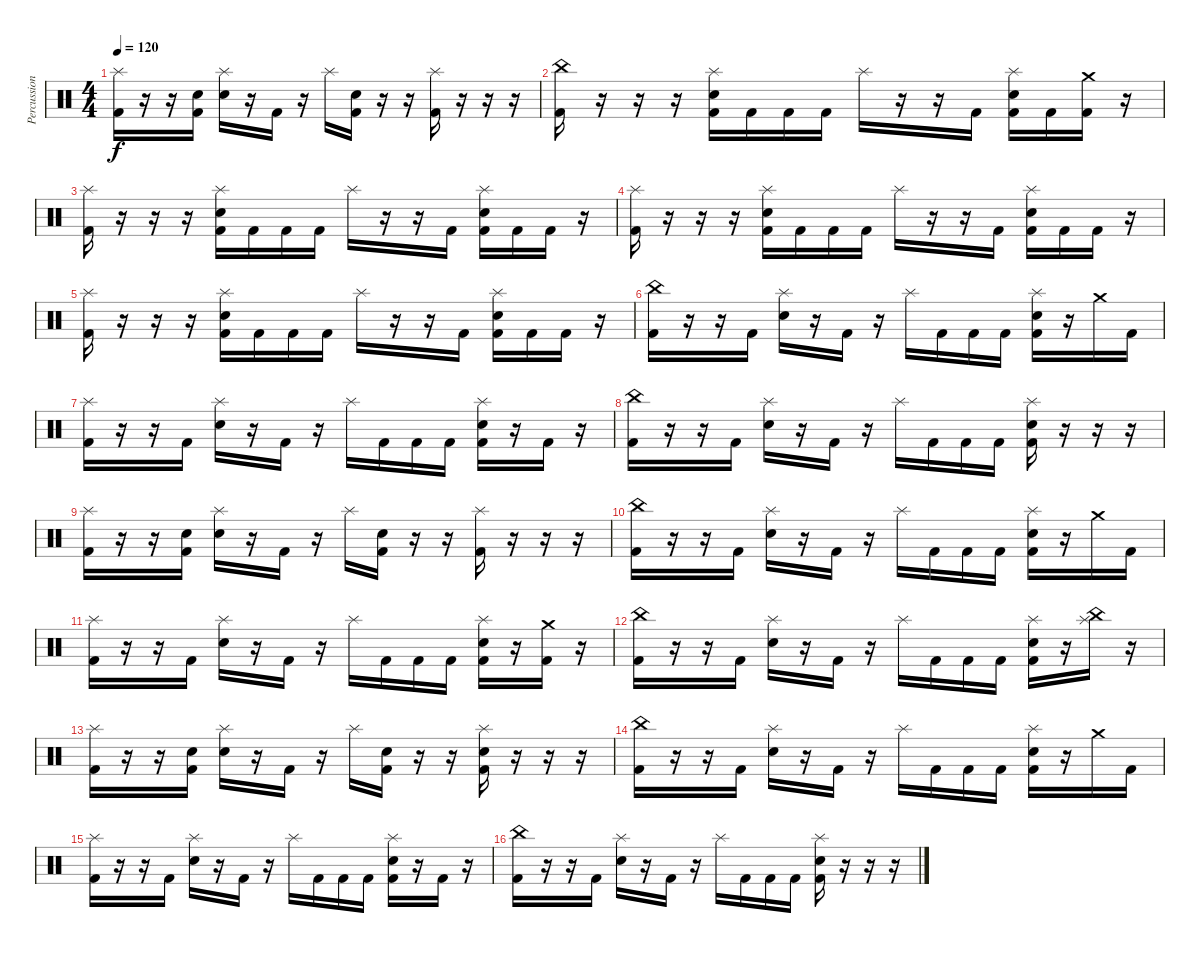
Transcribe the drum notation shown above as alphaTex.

\track ("Percussion" "Percussion") {instrument percussion}
\staff {score}
\articulation defaults
\ts (4 4)
\tempo 120
\clef neutral
\ks c
("Splash (hit)" "Kick (hit) 2").16{dy f} r.16 r.16 ("Electric Snare (hit)" "Kick (hit) 2").16 ("Splash (hit)" "Electric Snare (hit)").16 r.16 "Kick (hit) 2".16 r.16 "Splash (hit)".16 ("Electric Snare (hit)" "Kick (hit) 2").16 r.16 r.16 ("Splash (hit)" "Kick (hit) 2").16 r.16 r.16 r.16 |
("China (hit)" "Kick (hit) 2").16 r.16 r.16 r.16 ("Splash (hit)" "Electric Snare (hit)" "Kick (hit) 2").16 "Kick (hit) 2".16 "Kick (hit) 2".16 "Kick (hit) 2".16 "Splash (hit)".16 r.16 r.16 "Kick (hit) 2".16 ("Splash (hit)" "Electric Snare (hit)" "Kick (hit) 2").16 "Kick (hit) 2".16 ("Crash medium (hit)" "Kick (hit) 2").16 r.16 |
("Splash (hit)" "Kick (hit) 2").16 r.16 r.16 r.16 ("Splash (hit)" "Electric Snare (hit)" "Kick (hit) 2").16 "Kick (hit) 2".16 "Kick (hit) 2".16 "Kick (hit) 2".16 "Splash (hit)".16 r.16 r.16 "Kick (hit) 2".16 ("Splash (hit)" "Electric Snare (hit)" "Kick (hit) 2").16 "Kick (hit) 2".16 "Kick (hit) 2".16 r.16 |
("Splash (hit)" "Kick (hit) 2").16 r.16 r.16 r.16 ("Splash (hit)" "Electric Snare (hit)" "Kick (hit) 2").16 "Kick (hit) 2".16 "Kick (hit) 2".16 "Kick (hit) 2".16 "Splash (hit)".16 r.16 r.16 "Kick (hit) 2".16 ("Splash (hit)" "Electric Snare (hit)" "Kick (hit) 2").16 "Kick (hit) 2".16 "Kick (hit) 2".16 r.16 |
("Splash (hit)" "Kick (hit) 2").16 r.16 r.16 r.16 ("Splash (hit)" "Electric Snare (hit)" "Kick (hit) 2").16 "Kick (hit) 2".16 "Kick (hit) 2".16 "Kick (hit) 2".16 "Splash (hit)".16 r.16 r.16 "Kick (hit) 2".16 ("Splash (hit)" "Electric Snare (hit)" "Kick (hit) 2").16 "Kick (hit) 2".16 "Kick (hit) 2".16 r.16 |
("China (hit)" "Kick (hit) 2").16 r.16 r.16 "Kick (hit) 2".16 ("Splash (hit)" "Electric Snare (hit)").16 r.16 "Kick (hit) 2".16 r.16 "Splash (hit)".16 "Kick (hit) 2".16 "Kick (hit) 2".16 "Kick (hit) 2".16 ("Splash (hit)" "Electric Snare (hit)" "Kick (hit) 2").16 r.16 "Crash medium (hit)".16 "Kick (hit) 2".16 |
("Splash (hit)" "Kick (hit) 2").16 r.16 r.16 "Kick (hit) 2".16 ("Splash (hit)" "Electric Snare (hit)").16 r.16 "Kick (hit) 2".16 r.16 "Splash (hit)".16 "Kick (hit) 2".16 "Kick (hit) 2".16 "Kick (hit) 2".16 ("Splash (hit)" "Electric Snare (hit)" "Kick (hit) 2").16 r.16 "Kick (hit) 2".16 r.16 |
("China (hit)" "Kick (hit) 2").16 r.16 r.16 "Kick (hit) 2".16 ("Splash (hit)" "Electric Snare (hit)").16 r.16 "Kick (hit) 2".16 r.16 "Splash (hit)".16 "Kick (hit) 2".16 "Kick (hit) 2".16 "Kick (hit) 2".16 ("Splash (hit)" "Electric Snare (hit)" "Kick (hit) 2").16 r.16 r.16 r.16 |
("Splash (hit)" "Kick (hit) 2").16 r.16 r.16 ("Electric Snare (hit)" "Kick (hit) 2").16 ("Splash (hit)" "Electric Snare (hit)").16 r.16 "Kick (hit) 2".16 r.16 "Splash (hit)".16 ("Electric Snare (hit)" "Kick (hit) 2").16 r.16 r.16 ("Splash (hit)" "Kick (hit) 2").16 r.16 r.16 r.16 |
("China (hit)" "Kick (hit) 2").16 r.16 r.16 "Kick (hit) 2".16 ("Splash (hit)" "Electric Snare (hit)").16 r.16 "Kick (hit) 2".16 r.16 "Splash (hit)".16 "Kick (hit) 2".16 "Kick (hit) 2".16 "Kick (hit) 2".16 ("Splash (hit)" "Electric Snare (hit)" "Kick (hit) 2").16 r.16 "Crash medium (hit)".16 "Kick (hit) 2".16 |
("Splash (hit)" "Kick (hit) 2").16 r.16 r.16 "Kick (hit) 2".16 ("Splash (hit)" "Electric Snare (hit)").16 r.16 "Kick (hit) 2".16 r.16 "Splash (hit)".16 "Kick (hit) 2".16 "Kick (hit) 2".16 "Kick (hit) 2".16 ("Splash (hit)" "Electric Snare (hit)" "Kick (hit) 2").16 r.16 ("Crash medium (hit)" "Kick (hit) 2").16 r.16 |
("China (hit)" "Kick (hit) 2").16 r.16 r.16 "Kick (hit) 2".16 ("Splash (hit)" "Electric Snare (hit)").16 r.16 "Kick (hit) 2".16 r.16 "Splash (hit)".16 "Kick (hit) 2".16 "Kick (hit) 2".16 "Kick (hit) 2".16 ("Splash (hit)" "Electric Snare (hit)" "Kick (hit) 2").16 r.16 ("China (hit)" "Splash (hit)").16 r.16 |
("Splash (hit)" "Kick (hit) 2").16 r.16 r.16 ("Electric Snare (hit)" "Kick (hit) 2").16 ("Splash (hit)" "Electric Snare (hit)").16 r.16 "Kick (hit) 2".16 r.16 "Splash (hit)".16 ("Electric Snare (hit)" "Kick (hit) 2").16 r.16 r.16 ("Splash (hit)" "Electric Snare (hit)" "Kick (hit) 2").16 r.16 r.16 r.16 |
("China (hit)" "Kick (hit) 2").16 r.16 r.16 "Kick (hit) 2".16 ("Splash (hit)" "Electric Snare (hit)").16 r.16 "Kick (hit) 2".16 r.16 "Splash (hit)".16 "Kick (hit) 2".16 "Kick (hit) 2".16 "Kick (hit) 2".16 ("Splash (hit)" "Electric Snare (hit)" "Kick (hit) 2").16 r.16 "Crash medium (hit)".16 "Kick (hit) 2".16 |
("Splash (hit)" "Kick (hit) 2").16 r.16 r.16 "Kick (hit) 2".16 ("Splash (hit)" "Electric Snare (hit)").16 r.16 "Kick (hit) 2".16 r.16 "Splash (hit)".16 "Kick (hit) 2".16 "Kick (hit) 2".16 "Kick (hit) 2".16 ("Splash (hit)" "Electric Snare (hit)" "Kick (hit) 2").16 r.16 "Kick (hit) 2".16 r.16 |
("China (hit)" "Kick (hit) 2").16 r.16 r.16 "Kick (hit) 2".16 ("Splash (hit)" "Electric Snare (hit)").16 r.16 "Kick (hit) 2".16 r.16 "Splash (hit)".16 "Kick (hit) 2".16 "Kick (hit) 2".16 "Kick (hit) 2".16 ("Splash (hit)" "Electric Snare (hit)" "Kick (hit) 2").16 r.16 r.16 r.16
